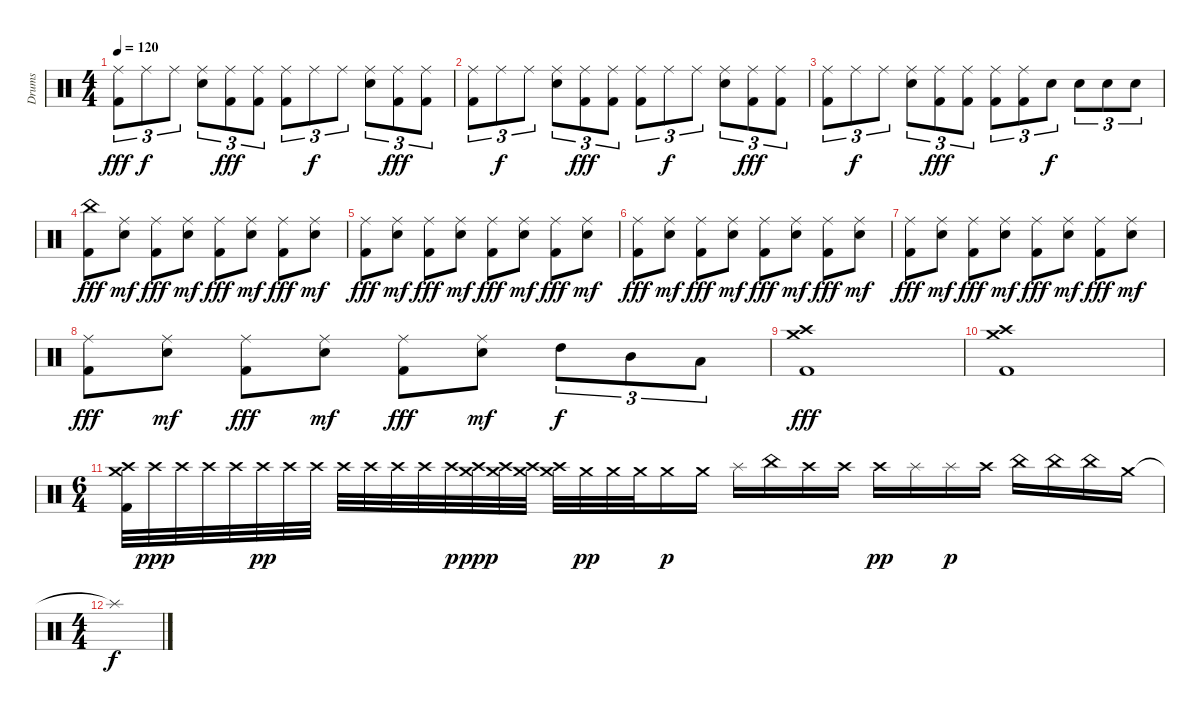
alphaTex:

\track ("Drums" "Drums") {instrument percussion}
\staff {score}
\articulation defaults
\ts (4 4)
\tempo 120
\clef neutral
\ks c
("Ride (middle)" "Kick (hit) 2").8{tu (3 2) dy fff} "Ride (middle)".8{tu (3 2) dy f} "Ride (middle)".8{tu (3 2)} ("Ride (middle)" "Electric Snare (hit)").8{tu (3 2)} ("Ride (middle)" "Kick (hit) 2").8{tu (3 2) dy fff} ("Ride (middle)" "Kick (hit) 2").8{tu (3 2)} ("Ride (middle)" "Kick (hit) 2").8{tu (3 2)} "Ride (middle)".8{tu (3 2) dy f} "Ride (middle)".8{tu (3 2)} ("Ride (middle)" "Electric Snare (hit)").8{tu (3 2)} ("Ride (middle)" "Kick (hit) 2").8{tu (3 2) dy fff} ("Ride (middle)" "Kick (hit) 2").8{tu (3 2)} |
("Ride (middle)" "Kick (hit) 2").8{tu (3 2)} "Ride (middle)".8{tu (3 2) dy f} "Ride (middle)".8{tu (3 2)} ("Ride (middle)" "Electric Snare (hit)").8{tu (3 2)} ("Ride (middle)" "Kick (hit) 2").8{tu (3 2) dy fff} ("Ride (middle)" "Kick (hit) 2").8{tu (3 2)} ("Ride (middle)" "Kick (hit) 2").8{tu (3 2)} "Ride (middle)".8{tu (3 2) dy f} "Ride (middle)".8{tu (3 2)} ("Ride (middle)" "Electric Snare (hit)").8{tu (3 2)} ("Ride (middle)" "Kick (hit) 2").8{tu (3 2) dy fff} ("Ride (middle)" "Kick (hit) 2").8{tu (3 2)} |
("Ride (middle)" "Kick (hit) 2").8{tu (3 2)} "Ride (middle)".8{tu (3 2) dy f} "Ride (middle)".8{tu (3 2)} ("Ride (middle)" "Electric Snare (hit)").8{tu (3 2)} ("Ride (middle)" "Kick (hit) 2").8{tu (3 2) dy fff} ("Ride (middle)" "Kick (hit) 2").8{tu (3 2)} ("Ride (middle)" "Kick (hit) 2").8{tu (3 2)} ("Ride (middle)" "Kick (hit) 2").8{tu (3 2)} "Electric Snare (hit)".8{tu (3 2) dy f} "Electric Snare (hit)".8{tu (3 2)} "Electric Snare (hit)".8{tu (3 2)} "Electric Snare (hit)".8{tu (3 2)} |
("China (hit)" "Kick (hit) 2").8{dy fff} ("Ride (middle)" "Electric Snare (hit)").8{dy mf} ("Ride (middle)" "Kick (hit) 2").8{dy fff} ("Ride (middle)" "Electric Snare (hit)").8{dy mf} ("Ride (middle)" "Kick (hit) 2").8{dy fff} ("Ride (middle)" "Electric Snare (hit)").8{dy mf} ("Ride (middle)" "Kick (hit) 2").8{dy fff} ("Ride (middle)" "Electric Snare (hit)").8{dy mf} |
("Ride (middle)" "Kick (hit) 2").8{dy fff} ("Ride (middle)" "Electric Snare (hit)").8{dy mf} ("Ride (middle)" "Kick (hit) 2").8{dy fff} ("Ride (middle)" "Electric Snare (hit)").8{dy mf} ("Ride (middle)" "Kick (hit) 2").8{dy fff} ("Ride (middle)" "Electric Snare (hit)").8{dy mf} ("Ride (middle)" "Kick (hit) 2").8{dy fff} ("Ride (middle)" "Electric Snare (hit)").8{dy mf} |
("Ride (middle)" "Kick (hit) 2").8{dy fff} ("Ride (middle)" "Electric Snare (hit)").8{dy mf} ("Ride (middle)" "Kick (hit) 2").8{dy fff} ("Ride (middle)" "Electric Snare (hit)").8{dy mf} ("Ride (middle)" "Kick (hit) 2").8{dy fff} ("Ride (middle)" "Electric Snare (hit)").8{dy mf} ("Ride (middle)" "Kick (hit) 2").8{dy fff} ("Ride (middle)" "Electric Snare (hit)").8{dy mf} |
("Ride (middle)" "Kick (hit) 2").8{dy fff} ("Ride (middle)" "Electric Snare (hit)").8{dy mf} ("Ride (middle)" "Kick (hit) 2").8{dy fff} ("Ride (middle)" "Electric Snare (hit)").8{dy mf} ("Ride (middle)" "Kick (hit) 2").8{dy fff} ("Ride (middle)" "Electric Snare (hit)").8{dy mf} ("Ride (middle)" "Kick (hit) 2").8{dy fff} ("Ride (middle)" "Electric Snare (hit)").8{dy mf} |
("Ride (middle)" "Kick (hit) 2").8{dy fff} ("Ride (middle)" "Electric Snare (hit)").8{dy mf} ("Ride (middle)" "Kick (hit) 2").8{dy fff} ("Ride (middle)" "Electric Snare (hit)").8{dy mf} ("Ride (middle)" "Kick (hit) 2").8{dy fff} ("Ride (middle)" "Electric Snare (hit)").8{dy mf} "High Tom (hit)".8{tu (3 2) dy f} "Mid Tom (hit)".8{tu (3 2)} "Low Tom (hit)".8{tu (3 2)} |
("Crash medium (hit)" "Crash high (hit)" "Kick (hit) 2").1{dy fff} |
("Crash medium (hit)" "Crash high (hit)" "Kick (hit) 2").1 |
\ts (6 4)
("Crash medium (hit)" "Crash high (hit)" "Kick (hit) 2").32 "Crash high (hit)".32{dy ppp} "Crash high (hit)".32 "Crash high (hit)".32 "Crash high (hit)".32 "Crash high (hit)".32{dy pp} "Crash high (hit)".32 "Crash high (hit)".32 "Crash high (hit)".32 "Crash high (hit)".32 "Crash high (hit)".32 "Crash high (hit)".32 "Crash high (hit)".32{dy p} ("Crash high (hit)" "Crash medium (hit)").32{dy ppp} ("Crash high (hit)" "Crash medium (hit)").32 ("Crash high (hit)" "Crash medium (hit)").32 ("Crash high (hit)" "Crash medium (hit)").32 "Crash medium (hit)".32{dy pp} "Crash medium (hit)".32 "Crash medium (hit)".32 "Crash medium (hit)".16{dy p} "Crash medium (hit)".16 "Splash (hit)".16 "China (hit)".16 "Crash high (hit)".16 "Crash high (hit)".16 "Crash high (hit)".16{dy pp} "Splash (hit)".16 "Splash (hit)".16{dy p} "Crash high (hit)".16 "China (hit)".16 "China (hit)".16 "China (hit)".16 "Crash medium (hit)".16 |
\ts (4 4)
"Splash (hit)"{t}.1{dy f}
